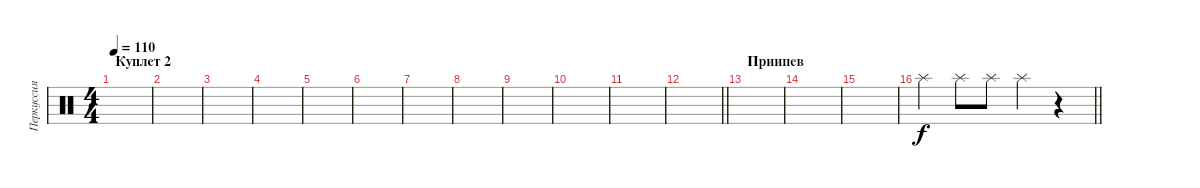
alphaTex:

\track ("Перкуссия" "Перкуссия") {instrument percussion}
\staff {score}
\articulation defaults
\ts (4 4)
\section ("" "Куплет 2")
\tempo 110
\clef neutral
\ks c
|
|
|
|
|
|
|
|
|
|
|
\barLineRight lightlight
|
\section ("" "Приипев")
|
|
|
\barLineRight lightlight "Splash (hit)".4{balance 0} "Splash (hit)".8{balance 16} "Splash (hit)".8{balance 0} "Splash (hit)".4{balance 16}
r.4
